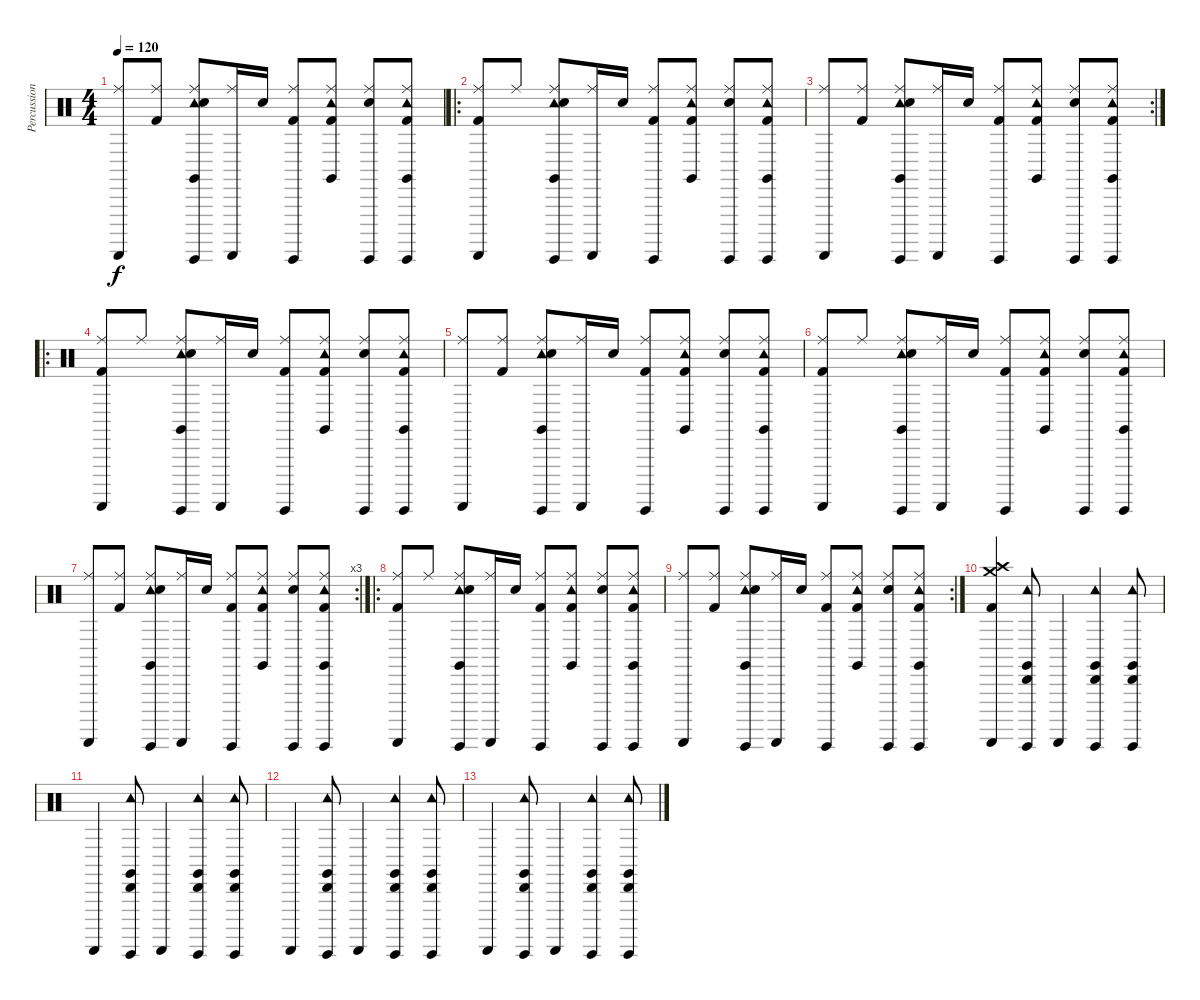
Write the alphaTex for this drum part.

\track ("Percussion" "Percussion") {instrument percussion}
\staff {score}
\articulation defaults
\ts (4 4)
\tempo 120
\clef neutral
\ks c
("Guiro (scrap-return)" "Ride (middle)").8{dy f} ("Ride (middle)" "Kick (hit) 2").8 ("Tambourine (hit)" "Guiro (hit)" "Claves (hit)" "Snare (hit) 2" "Ride (middle)").8 ("Guiro (scrap-return)" "Ride (middle)").16 "Snare (hit) 2".16 ("Guiro (hit)" "Kick (hit) 2" "Ride (middle)").8 ("Tambourine (hit)" "Claves (hit)" "Kick (hit) 2" "Ride (middle)").8 ("Guiro (hit)" "Snare (hit) 2" "Ride (middle)").8 ("Tambourine (hit)" "Guiro (hit)" "Claves (hit)" "Kick (hit) 2" "Ride (middle)").8 |
\ro
("Guiro (scrap-return)" "Ride (middle)" "Kick (hit) 2").8 "Ride (middle)".8 ("Tambourine (hit)" "Guiro (hit)" "Claves (hit)" "Snare (hit) 2" "Ride (middle)").8 ("Guiro (scrap-return)" "Ride (middle)").16 "Snare (hit) 2".16 ("Guiro (hit)" "Kick (hit) 2" "Ride (middle)").8 ("Tambourine (hit)" "Claves (hit)" "Kick (hit) 2" "Ride (middle)").8 ("Guiro (hit)" "Snare (hit) 2" "Ride (middle)").8 ("Tambourine (hit)" "Guiro (hit)" "Claves (hit)" "Kick (hit) 2" "Ride (middle)").8 |
\rc 2
("Guiro (scrap-return)" "Ride (middle)").8 ("Ride (middle)" "Kick (hit) 2").8 ("Tambourine (hit)" "Guiro (hit)" "Claves (hit)" "Snare (hit) 2" "Ride (middle)").8 ("Guiro (scrap-return)" "Ride (middle)").16 "Snare (hit) 2".16 ("Guiro (hit)" "Kick (hit) 2" "Ride (middle)").8 ("Tambourine (hit)" "Claves (hit)" "Kick (hit) 2" "Ride (middle)").8 ("Guiro (hit)" "Snare (hit) 2" "Ride (middle)").8 ("Tambourine (hit)" "Guiro (hit)" "Claves (hit)" "Kick (hit) 2" "Ride (middle)").8 |
\ro
("Guiro (scrap-return)" "Ride (middle)" "Kick (hit) 2").8 "Ride (middle)".8 ("Tambourine (hit)" "Guiro (hit)" "Claves (hit)" "Snare (hit) 2" "Ride (middle)").8 ("Guiro (scrap-return)" "Ride (middle)").16 "Snare (hit) 2".16 ("Guiro (hit)" "Kick (hit) 2" "Ride (middle)").8 ("Tambourine (hit)" "Claves (hit)" "Kick (hit) 2" "Ride (middle)").8 ("Guiro (hit)" "Snare (hit) 2" "Ride (middle)").8 ("Tambourine (hit)" "Guiro (hit)" "Claves (hit)" "Kick (hit) 2" "Ride (middle)").8 |
("Guiro (scrap-return)" "Ride (middle)").8 ("Ride (middle)" "Kick (hit) 2").8 ("Tambourine (hit)" "Guiro (hit)" "Claves (hit)" "Snare (hit) 2" "Ride (middle)").8 ("Guiro (scrap-return)" "Ride (middle)").16 "Snare (hit) 2".16 ("Guiro (hit)" "Kick (hit) 2" "Ride (middle)").8 ("Tambourine (hit)" "Claves (hit)" "Kick (hit) 2" "Ride (middle)").8 ("Guiro (hit)" "Snare (hit) 2" "Ride (middle)").8 ("Tambourine (hit)" "Guiro (hit)" "Claves (hit)" "Kick (hit) 2" "Ride (middle)").8 |
("Guiro (scrap-return)" "Ride (middle)" "Kick (hit) 2").8 "Ride (middle)".8 ("Tambourine (hit)" "Guiro (hit)" "Claves (hit)" "Snare (hit) 2" "Ride (middle)").8 ("Guiro (scrap-return)" "Ride (middle)").16 "Snare (hit) 2".16 ("Guiro (hit)" "Kick (hit) 2" "Ride (middle)").8 ("Tambourine (hit)" "Claves (hit)" "Kick (hit) 2" "Ride (middle)").8 ("Guiro (hit)" "Snare (hit) 2" "Ride (middle)").8 ("Tambourine (hit)" "Guiro (hit)" "Claves (hit)" "Kick (hit) 2" "Ride (middle)").8 |
\rc 3
("Guiro (scrap-return)" "Ride (middle)").8 ("Ride (middle)" "Kick (hit) 2").8 ("Tambourine (hit)" "Guiro (hit)" "Claves (hit)" "Snare (hit) 2" "Ride (middle)").8 ("Guiro (scrap-return)" "Ride (middle)").16 "Snare (hit) 2".16 ("Guiro (hit)" "Kick (hit) 2" "Ride (middle)").8 ("Tambourine (hit)" "Claves (hit)" "Kick (hit) 2" "Ride (middle)").8 ("Guiro (hit)" "Snare (hit) 2" "Ride (middle)").8 ("Tambourine (hit)" "Guiro (hit)" "Claves (hit)" "Kick (hit) 2" "Ride (middle)").8 |
\ro
("Guiro (scrap-return)" "Ride (middle)" "Kick (hit) 2").8 "Ride (middle)".8 ("Tambourine (hit)" "Guiro (hit)" "Claves (hit)" "Snare (hit) 2" "Ride (middle)").8 ("Guiro (scrap-return)" "Ride (middle)").16 "Snare (hit) 2".16 ("Guiro (hit)" "Kick (hit) 2" "Ride (middle)").8 ("Tambourine (hit)" "Claves (hit)" "Kick (hit) 2" "Ride (middle)").8 ("Guiro (hit)" "Snare (hit) 2" "Ride (middle)").8 ("Tambourine (hit)" "Guiro (hit)" "Claves (hit)" "Kick (hit) 2" "Ride (middle)").8 |
\rc 2
("Guiro (scrap-return)" "Ride (middle)").8 ("Ride (middle)" "Kick (hit) 2").8 ("Tambourine (hit)" "Guiro (hit)" "Claves (hit)" "Snare (hit) 2" "Ride (middle)").8 ("Guiro (scrap-return)" "Ride (middle)").16 "Snare (hit) 2".16 ("Guiro (hit)" "Kick (hit) 2" "Ride (middle)").8 ("Tambourine (hit)" "Claves (hit)" "Kick (hit) 2" "Ride (middle)").8 ("Guiro (hit)" "Snare (hit) 2" "Ride (middle)").8 ("Tambourine (hit)" "Guiro (hit)" "Claves (hit)" "Kick (hit) 2" "Ride (middle)").8 |
("Kick (hit) 2" "Crash high (hit)" "Crash medium (hit)" "Guiro (scrap-return)").4 ("Cabasa (hit)" "Tambourine (hit)" "Claves (hit)" "Guiro (hit)").8 "Guiro (scrap-return)".4 ("Cabasa (hit)" "Tambourine (hit)" "Claves (hit)" "Guiro (hit)").4 ("Cabasa (hit)" "Tambourine (hit)" "Claves (hit)" "Guiro (hit)").8 |
"Guiro (scrap-return)".4 ("Cabasa (hit)" "Tambourine (hit)" "Claves (hit)" "Guiro (hit)").8 "Guiro (scrap-return)".4 ("Cabasa (hit)" "Tambourine (hit)" "Claves (hit)" "Guiro (hit)").4 ("Cabasa (hit)" "Tambourine (hit)" "Claves (hit)" "Guiro (hit)").8 |
"Guiro (scrap-return)".4 ("Cabasa (hit)" "Tambourine (hit)" "Claves (hit)" "Guiro (hit)").8 "Guiro (scrap-return)".4 ("Cabasa (hit)" "Tambourine (hit)" "Claves (hit)" "Guiro (hit)").4 ("Cabasa (hit)" "Tambourine (hit)" "Claves (hit)" "Guiro (hit)").8 |
"Guiro (scrap-return)".4 ("Cabasa (hit)" "Tambourine (hit)" "Claves (hit)" "Guiro (hit)").8 "Guiro (scrap-return)".4 ("Cabasa (hit)" "Tambourine (hit)" "Claves (hit)" "Guiro (hit)").4 ("Cabasa (hit)" "Tambourine (hit)" "Claves (hit)" "Guiro (hit)").8
